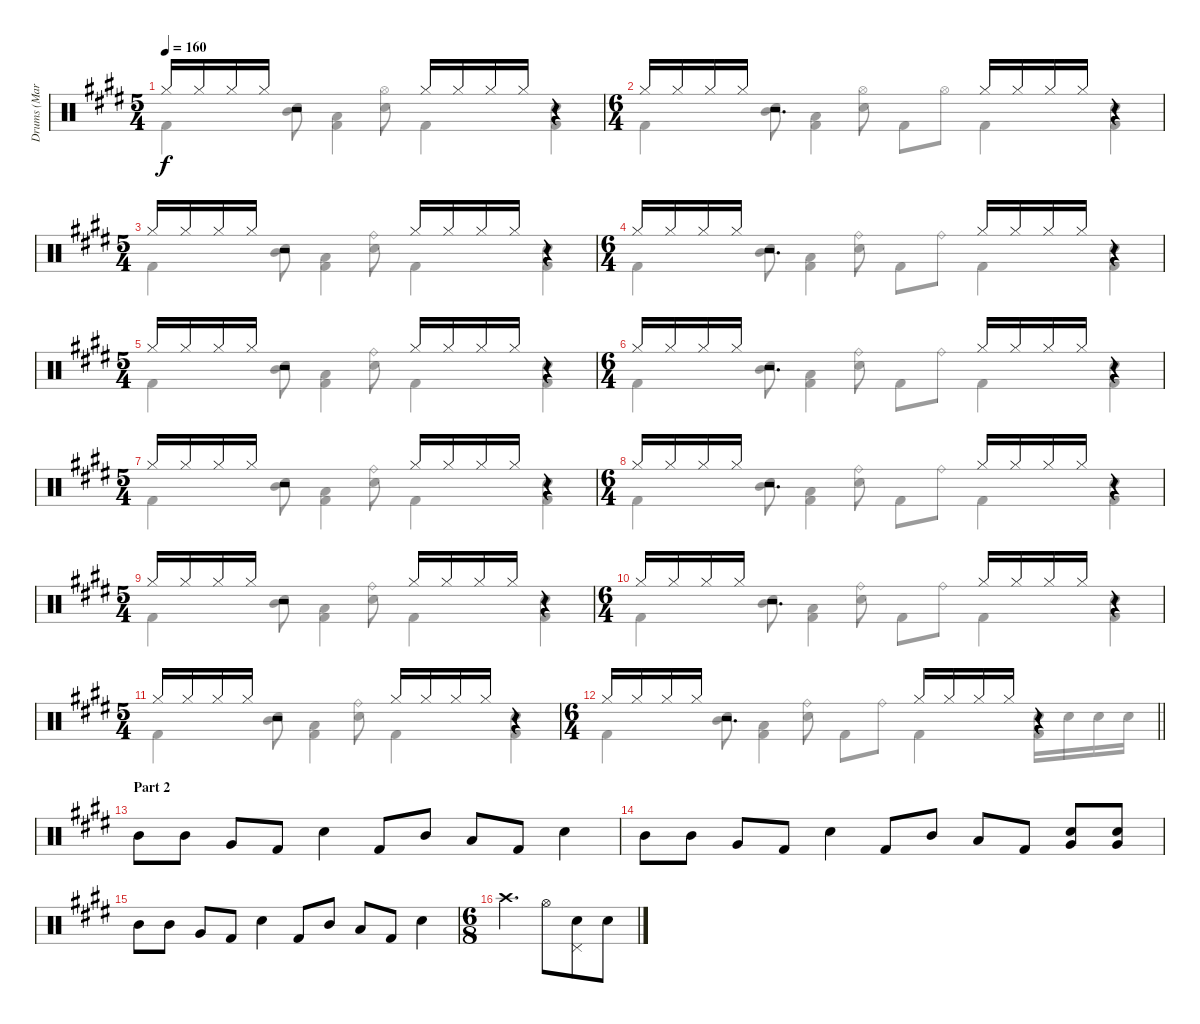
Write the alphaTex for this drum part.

\track ("Drums (Mark Zonder)" "Drums (Mar") {instrument percussion}
\staff {score}
\articulation defaults
\voice
\ts (5 4)
\tempo 160
\clef neutral
\ks c#minor "Hi-Hat (closed)".16{dy f} "Hi-Hat (closed)".16 "Hi-Hat (closed)".16 "Hi-Hat (closed)".16
r.2 "Hi-Hat (closed)".16 "Hi-Hat (closed)".16 "Hi-Hat (closed)".16 "Hi-Hat (closed)".16 r.4 |
\ts (6 4)
"Hi-Hat (closed)".16 "Hi-Hat (closed)".16 "Hi-Hat (closed)".16 "Hi-Hat (closed)".16 r.2{d} "Hi-Hat (closed)".16 "Hi-Hat (closed)".16 "Hi-Hat (closed)".16 "Hi-Hat (closed)".16 r.4 |
\ts (5 4)
"Hi-Hat (closed)".16 "Hi-Hat (closed)".16 "Hi-Hat (closed)".16 "Hi-Hat (closed)".16 r.2 "Hi-Hat (closed)".16 "Hi-Hat (closed)".16 "Hi-Hat (closed)".16 "Hi-Hat (closed)".16 r.4 |
\ts (6 4)
"Hi-Hat (closed)".16 "Hi-Hat (closed)".16 "Hi-Hat (closed)".16 "Hi-Hat (closed)".16 r.2{d} "Hi-Hat (closed)".16 "Hi-Hat (closed)".16 "Hi-Hat (closed)".16 "Hi-Hat (closed)".16 r.4 |
\ts (5 4)
"Hi-Hat (closed)".16 "Hi-Hat (closed)".16 "Hi-Hat (closed)".16 "Hi-Hat (closed)".16 r.2 "Hi-Hat (closed)".16 "Hi-Hat (closed)".16 "Hi-Hat (closed)".16 "Hi-Hat (closed)".16 r.4 |
\ts (6 4)
"Hi-Hat (closed)".16 "Hi-Hat (closed)".16 "Hi-Hat (closed)".16 "Hi-Hat (closed)".16 r.2{d} "Hi-Hat (closed)".16 "Hi-Hat (closed)".16 "Hi-Hat (closed)".16 "Hi-Hat (closed)".16 r.4 |
\ts (5 4)
"Hi-Hat (closed)".16 "Hi-Hat (closed)".16 "Hi-Hat (closed)".16 "Hi-Hat (closed)".16 r.2 "Hi-Hat (closed)".16 "Hi-Hat (closed)".16 "Hi-Hat (closed)".16 "Hi-Hat (closed)".16 r.4 |
\ts (6 4)
"Hi-Hat (closed)".16 "Hi-Hat (closed)".16 "Hi-Hat (closed)".16 "Hi-Hat (closed)".16 r.2{d} "Hi-Hat (closed)".16 "Hi-Hat (closed)".16 "Hi-Hat (closed)".16 "Hi-Hat (closed)".16 r.4 |
\ts (5 4)
"Hi-Hat (closed)".16 "Hi-Hat (closed)".16 "Hi-Hat (closed)".16 "Hi-Hat (closed)".16 r.2 "Hi-Hat (closed)".16 "Hi-Hat (closed)".16 "Hi-Hat (closed)".16 "Hi-Hat (closed)".16 r.4 |
\ts (6 4)
"Hi-Hat (closed)".16 "Hi-Hat (closed)".16 "Hi-Hat (closed)".16 "Hi-Hat (closed)".16 r.2{d} "Hi-Hat (closed)".16 "Hi-Hat (closed)".16 "Hi-Hat (closed)".16 "Hi-Hat (closed)".16 r.4 |
\ts (5 4)
"Hi-Hat (closed)".16 "Hi-Hat (closed)".16 "Hi-Hat (closed)".16 "Hi-Hat (closed)".16 r.2 "Hi-Hat (closed)".16 "Hi-Hat (closed)".16 "Hi-Hat (closed)".16 "Hi-Hat (closed)".16 r.4 |
\ts (6 4)
\barLineRight lightlight "Hi-Hat (closed)".16 "Hi-Hat (closed)".16 "Hi-Hat (closed)".16 "Hi-Hat (closed)".16
r.2{d} "Hi-Hat (closed)".16 "Hi-Hat (closed)".16 "Hi-Hat (closed)".16 "Hi-Hat (closed)".16 r.4 |
\section ("" "Part 2")
"Mid Tom (hit)".8 "Mid Tom (hit)".8 "Very Low Tom (hit)".8 "Kick (hit) 2".8 "Electric Snare (hit)".4 "Kick (hit) 2".8 "Mid Tom (hit)".8 "Low Tom (hit)".8 "Kick (hit) 2".8 "Electric Snare (hit)".4 |
"Mid Tom (hit)".8 "Mid Tom (hit)".8 "Very Low Tom (hit)".8 "Kick (hit) 2".8 "Electric Snare (hit)".4 "Kick (hit) 2".8 "Mid Tom (hit)".8 "Low Tom (hit)".8 "Kick (hit) 2".8 ("Electric Snare (hit)" "Very Low Tom (hit)").8 ("Electric Snare (hit)" "Very Low Tom (hit)").8 |
"Mid Tom (hit)".8 "Mid Tom (hit)".8 "Very Low Tom (hit)".8 "Kick (hit) 2".8 "Electric Snare (hit)".4 "Kick (hit) 2".8 "Mid Tom (hit)".8 "Low Tom (hit)".8 "Kick (hit) 2".8 "Electric Snare (hit)".4 |
\ts (6 8)
"Crash high (hit)".4{d} "Hi-Hat (open)".8 ("Pedal Hi-Hat (hit)" "Electric Snare (hit)").8 "Electric Snare (hit)".8
\voice
\clef neutral
\ottava regular
\simile none
\ks c#minor "Kick (hit) 2".4{dy f}
("Mid Tom (hit)" "Electric Snare (hit)").8 ("Low Tom (hit)" "Kick (hit) 2").4 ("Hi-Hat (open)" "Electric Snare (hit)").8 "Kick (hit) 2".4 ("Electric Snare (hit)" "Kick (hit) 2").4 |
"Kick (hit) 2".4 ("Electric Snare (hit)" "Mid Tom (hit)").8 ("Low Tom (hit)" "Kick (hit) 2").4 ("Hi-Hat (open)" "Electric Snare (hit)").8 "Kick (hit) 2".8 "Hi-Hat (open)".8 "Kick (hit) 2".4 ("Electric Snare (hit)" "Kick (hit) 2").4 |
"Kick (hit) 2".4 ("Electric Snare (hit)" "Mid Tom (hit)").8 ("Low Tom (hit)" "Kick (hit) 2").4 ("Ride (bell)" "Electric Snare (hit)").8 "Kick (hit) 2".4 ("Electric Snare (hit)" "Kick (hit) 2").4 |
"Kick (hit) 2".4 ("Electric Snare (hit)" "Mid Tom (hit)").8 ("Low Tom (hit)" "Kick (hit) 2").4 ("Ride (bell)" "Electric Snare (hit)").8 "Kick (hit) 2".8 "Ride (bell)".8 "Kick (hit) 2".4 ("Electric Snare (hit)" "Kick (hit) 2").4 |
"Kick (hit) 2".4 ("Electric Snare (hit)" "Mid Tom (hit)").8 ("Low Tom (hit)" "Kick (hit) 2").4 ("Ride (bell)" "Electric Snare (hit)").8 "Kick (hit) 2".4 ("Electric Snare (hit)" "Kick (hit) 2").4 |
"Kick (hit) 2".4 ("Electric Snare (hit)" "Mid Tom (hit)").8 ("Low Tom (hit)" "Kick (hit) 2").4 ("Ride (bell)" "Electric Snare (hit)").8 "Kick (hit) 2".8 "Ride (bell)".8 "Kick (hit) 2".4 ("Electric Snare (hit)" "Kick (hit) 2").4 |
"Kick (hit) 2".4 ("Electric Snare (hit)" "Mid Tom (hit)").8 ("Low Tom (hit)" "Kick (hit) 2").4 ("Ride (bell)" "Electric Snare (hit)").8 "Kick (hit) 2".4 ("Electric Snare (hit)" "Kick (hit) 2").4 |
"Kick (hit) 2".4 ("Electric Snare (hit)" "Mid Tom (hit)").8 ("Low Tom (hit)" "Kick (hit) 2").4 ("Ride (bell)" "Electric Snare (hit)").8 "Kick (hit) 2".8 "Ride (bell)".8 "Kick (hit) 2".4 ("Electric Snare (hit)" "Kick (hit) 2").4 |
"Kick (hit) 2".4 ("Electric Snare (hit)" "Mid Tom (hit)").8 ("Low Tom (hit)" "Kick (hit) 2").4 ("Ride (bell)" "Electric Snare (hit)").8 "Kick (hit) 2".4 ("Electric Snare (hit)" "Kick (hit) 2").4 |
"Kick (hit) 2".4 ("Electric Snare (hit)" "Mid Tom (hit)").8 ("Low Tom (hit)" "Kick (hit) 2").4 ("Ride (bell)" "Electric Snare (hit)").8 "Kick (hit) 2".8 "Ride (bell)".8 "Kick (hit) 2".4 ("Electric Snare (hit)" "Kick (hit) 2").4 |
"Kick (hit) 2".4 ("Electric Snare (hit)" "Mid Tom (hit)").8 ("Low Tom (hit)" "Kick (hit) 2").4 ("Ride (bell)" "Electric Snare (hit)").8 "Kick (hit) 2".4 ("Electric Snare (hit)" "Kick (hit) 2").4 |
\barLineRight lightlight "Kick (hit) 2".4
("Electric Snare (hit)" "Mid Tom (hit)").8 ("Low Tom (hit)" "Kick (hit) 2").4 ("Ride (bell)" "Electric Snare (hit)").8 "Kick (hit) 2".8 "Ride (bell)".8 "Kick (hit) 2".4 ("Electric Snare (hit)" "Kick (hit) 2").16 "Electric Snare (hit)".16 "Electric Snare (hit)".16 "Electric Snare (hit)".16 |
|
|
|
